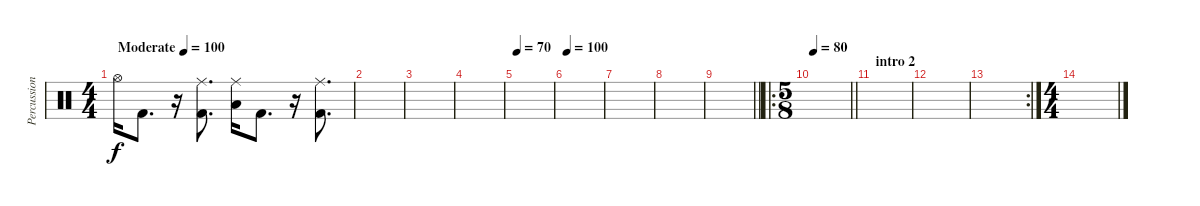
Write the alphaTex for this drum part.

\track ("Percussion" "Percussion") {instrument percussion}
\staff {score}
\articulation defaults
\ts (4 4)
\tempo (100 "Moderate")
\clef neutral
\ks c "Hi-Hat (open)".16{dy f} "Kick (hit) 2".8{d}
r.16 ("Kick (hit) 2" "Ride (middle)").8{d} ("Low Floor Tom (hit)" "Ride (middle)").16 "Kick (hit) 2".8{d} r.16 ("Kick (hit) 2" "Ride (middle)").8{d} |
|
|
|
\tempo 70
|
\tempo 100
|
|
|
\barLineRight lightlight
|
\ro
\ts (5 8)
\tempo 80
\barLineRight lightlight
|
\section ("" "intro 2")
|
|
\rc 2
|
\ts (4 4)
